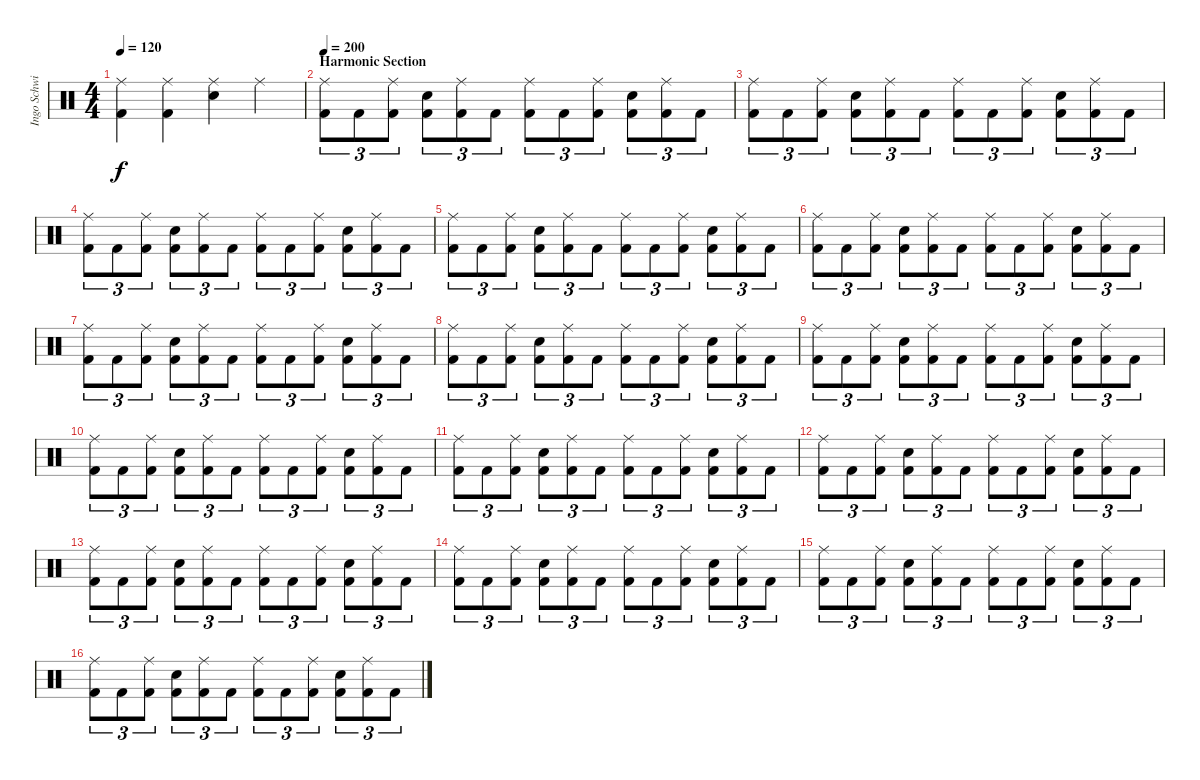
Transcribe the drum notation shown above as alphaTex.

\track ("Ingo Schwichtenberg" "Ingo Schwi") {instrument percussion}
\staff {score}
\articulation defaults
\ts (4 4)
\tempo 120
\clef neutral
\ks c
("Ride (middle)" "Kick (hit) 2").4{dy f} ("Ride (middle)" "Kick (hit) 2").4 ("Ride (middle)" "Snare (hit) 2").4 "Ride (middle)".4 |
\section ("" "Harmonic Section")
\tempo 200
("Ride (middle)" "Kick (hit) 2").8{tu (3 2)} "Kick (hit) 2".8{tu (3 2)} ("Ride (middle)" "Kick (hit) 2").8{tu (3 2)} ("Snare (hit) 2" "Kick (hit) 2").8{tu (3 2)} ("Ride (middle)" "Kick (hit) 2").8{tu (3 2)} "Kick (hit) 2".8{tu (3 2)} ("Ride (middle)" "Kick (hit) 2").8{tu (3 2)} "Kick (hit) 2".8{tu (3 2)} ("Ride (middle)" "Kick (hit) 2").8{tu (3 2)} ("Snare (hit) 2" "Kick (hit) 2").8{tu (3 2)} ("Ride (middle)" "Kick (hit) 2").8{tu (3 2)} "Kick (hit) 2".8{tu (3 2)} |
("Ride (middle)" "Kick (hit) 2").8{tu (3 2)} "Kick (hit) 2".8{tu (3 2)} ("Ride (middle)" "Kick (hit) 2").8{tu (3 2)} ("Snare (hit) 2" "Kick (hit) 2").8{tu (3 2)} ("Ride (middle)" "Kick (hit) 2").8{tu (3 2)} "Kick (hit) 2".8{tu (3 2)} ("Ride (middle)" "Kick (hit) 2").8{tu (3 2)} "Kick (hit) 2".8{tu (3 2)} ("Ride (middle)" "Kick (hit) 2").8{tu (3 2)} ("Snare (hit) 2" "Kick (hit) 2").8{tu (3 2)} ("Ride (middle)" "Kick (hit) 2").8{tu (3 2)} "Kick (hit) 2".8{tu (3 2)} |
("Ride (middle)" "Kick (hit) 2").8{tu (3 2)} "Kick (hit) 2".8{tu (3 2)} ("Ride (middle)" "Kick (hit) 2").8{tu (3 2)} ("Snare (hit) 2" "Kick (hit) 2").8{tu (3 2)} ("Ride (middle)" "Kick (hit) 2").8{tu (3 2)} "Kick (hit) 2".8{tu (3 2)} ("Ride (middle)" "Kick (hit) 2").8{tu (3 2)} "Kick (hit) 2".8{tu (3 2)} ("Ride (middle)" "Kick (hit) 2").8{tu (3 2)} ("Snare (hit) 2" "Kick (hit) 2").8{tu (3 2)} ("Ride (middle)" "Kick (hit) 2").8{tu (3 2)} "Kick (hit) 2".8{tu (3 2)} |
("Ride (middle)" "Kick (hit) 2").8{tu (3 2)} "Kick (hit) 2".8{tu (3 2)} ("Ride (middle)" "Kick (hit) 2").8{tu (3 2)} ("Snare (hit) 2" "Kick (hit) 2").8{tu (3 2)} ("Ride (middle)" "Kick (hit) 2").8{tu (3 2)} "Kick (hit) 2".8{tu (3 2)} ("Ride (middle)" "Kick (hit) 2").8{tu (3 2)} "Kick (hit) 2".8{tu (3 2)} ("Ride (middle)" "Kick (hit) 2").8{tu (3 2)} ("Snare (hit) 2" "Kick (hit) 2").8{tu (3 2)} ("Ride (middle)" "Kick (hit) 2").8{tu (3 2)} "Kick (hit) 2".8{tu (3 2)} |
("Ride (middle)" "Kick (hit) 2").8{tu (3 2)} "Kick (hit) 2".8{tu (3 2)} ("Ride (middle)" "Kick (hit) 2").8{tu (3 2)} ("Snare (hit) 2" "Kick (hit) 2").8{tu (3 2)} ("Ride (middle)" "Kick (hit) 2").8{tu (3 2)} "Kick (hit) 2".8{tu (3 2)} ("Ride (middle)" "Kick (hit) 2").8{tu (3 2)} "Kick (hit) 2".8{tu (3 2)} ("Ride (middle)" "Kick (hit) 2").8{tu (3 2)} ("Snare (hit) 2" "Kick (hit) 2").8{tu (3 2)} ("Ride (middle)" "Kick (hit) 2").8{tu (3 2)} "Kick (hit) 2".8{tu (3 2)} |
("Ride (middle)" "Kick (hit) 2").8{tu (3 2)} "Kick (hit) 2".8{tu (3 2)} ("Ride (middle)" "Kick (hit) 2").8{tu (3 2)} ("Snare (hit) 2" "Kick (hit) 2").8{tu (3 2)} ("Ride (middle)" "Kick (hit) 2").8{tu (3 2)} "Kick (hit) 2".8{tu (3 2)} ("Ride (middle)" "Kick (hit) 2").8{tu (3 2)} "Kick (hit) 2".8{tu (3 2)} ("Ride (middle)" "Kick (hit) 2").8{tu (3 2)} ("Snare (hit) 2" "Kick (hit) 2").8{tu (3 2)} ("Ride (middle)" "Kick (hit) 2").8{tu (3 2)} "Kick (hit) 2".8{tu (3 2)} |
("Ride (middle)" "Kick (hit) 2").8{tu (3 2)} "Kick (hit) 2".8{tu (3 2)} ("Ride (middle)" "Kick (hit) 2").8{tu (3 2)} ("Snare (hit) 2" "Kick (hit) 2").8{tu (3 2)} ("Ride (middle)" "Kick (hit) 2").8{tu (3 2)} "Kick (hit) 2".8{tu (3 2)} ("Ride (middle)" "Kick (hit) 2").8{tu (3 2)} "Kick (hit) 2".8{tu (3 2)} ("Ride (middle)" "Kick (hit) 2").8{tu (3 2)} ("Snare (hit) 2" "Kick (hit) 2").8{tu (3 2)} ("Ride (middle)" "Kick (hit) 2").8{tu (3 2)} "Kick (hit) 2".8{tu (3 2)} |
("Ride (middle)" "Kick (hit) 2").8{tu (3 2)} "Kick (hit) 2".8{tu (3 2)} ("Ride (middle)" "Kick (hit) 2").8{tu (3 2)} ("Snare (hit) 2" "Kick (hit) 2").8{tu (3 2)} ("Ride (middle)" "Kick (hit) 2").8{tu (3 2)} "Kick (hit) 2".8{tu (3 2)} ("Ride (middle)" "Kick (hit) 2").8{tu (3 2)} "Kick (hit) 2".8{tu (3 2)} ("Ride (middle)" "Kick (hit) 2").8{tu (3 2)} ("Snare (hit) 2" "Kick (hit) 2").8{tu (3 2)} ("Ride (middle)" "Kick (hit) 2").8{tu (3 2)} "Kick (hit) 2".8{tu (3 2)} |
("Ride (middle)" "Kick (hit) 2").8{tu (3 2)} "Kick (hit) 2".8{tu (3 2)} ("Ride (middle)" "Kick (hit) 2").8{tu (3 2)} ("Snare (hit) 2" "Kick (hit) 2").8{tu (3 2)} ("Ride (middle)" "Kick (hit) 2").8{tu (3 2)} "Kick (hit) 2".8{tu (3 2)} ("Ride (middle)" "Kick (hit) 2").8{tu (3 2)} "Kick (hit) 2".8{tu (3 2)} ("Ride (middle)" "Kick (hit) 2").8{tu (3 2)} ("Snare (hit) 2" "Kick (hit) 2").8{tu (3 2)} ("Ride (middle)" "Kick (hit) 2").8{tu (3 2)} "Kick (hit) 2".8{tu (3 2)} |
("Ride (middle)" "Kick (hit) 2").8{tu (3 2)} "Kick (hit) 2".8{tu (3 2)} ("Ride (middle)" "Kick (hit) 2").8{tu (3 2)} ("Snare (hit) 2" "Kick (hit) 2").8{tu (3 2)} ("Ride (middle)" "Kick (hit) 2").8{tu (3 2)} "Kick (hit) 2".8{tu (3 2)} ("Ride (middle)" "Kick (hit) 2").8{tu (3 2)} "Kick (hit) 2".8{tu (3 2)} ("Ride (middle)" "Kick (hit) 2").8{tu (3 2)} ("Snare (hit) 2" "Kick (hit) 2").8{tu (3 2)} ("Ride (middle)" "Kick (hit) 2").8{tu (3 2)} "Kick (hit) 2".8{tu (3 2)} |
("Ride (middle)" "Kick (hit) 2").8{tu (3 2)} "Kick (hit) 2".8{tu (3 2)} ("Ride (middle)" "Kick (hit) 2").8{tu (3 2)} ("Snare (hit) 2" "Kick (hit) 2").8{tu (3 2)} ("Ride (middle)" "Kick (hit) 2").8{tu (3 2)} "Kick (hit) 2".8{tu (3 2)} ("Ride (middle)" "Kick (hit) 2").8{tu (3 2)} "Kick (hit) 2".8{tu (3 2)} ("Ride (middle)" "Kick (hit) 2").8{tu (3 2)} ("Snare (hit) 2" "Kick (hit) 2").8{tu (3 2)} ("Ride (middle)" "Kick (hit) 2").8{tu (3 2)} "Kick (hit) 2".8{tu (3 2)} |
("Ride (middle)" "Kick (hit) 2").8{tu (3 2)} "Kick (hit) 2".8{tu (3 2)} ("Ride (middle)" "Kick (hit) 2").8{tu (3 2)} ("Snare (hit) 2" "Kick (hit) 2").8{tu (3 2)} ("Ride (middle)" "Kick (hit) 2").8{tu (3 2)} "Kick (hit) 2".8{tu (3 2)} ("Ride (middle)" "Kick (hit) 2").8{tu (3 2)} "Kick (hit) 2".8{tu (3 2)} ("Ride (middle)" "Kick (hit) 2").8{tu (3 2)} ("Snare (hit) 2" "Kick (hit) 2").8{tu (3 2)} ("Ride (middle)" "Kick (hit) 2").8{tu (3 2)} "Kick (hit) 2".8{tu (3 2)} |
("Ride (middle)" "Kick (hit) 2").8{tu (3 2)} "Kick (hit) 2".8{tu (3 2)} ("Ride (middle)" "Kick (hit) 2").8{tu (3 2)} ("Snare (hit) 2" "Kick (hit) 2").8{tu (3 2)} ("Ride (middle)" "Kick (hit) 2").8{tu (3 2)} "Kick (hit) 2".8{tu (3 2)} ("Ride (middle)" "Kick (hit) 2").8{tu (3 2)} "Kick (hit) 2".8{tu (3 2)} ("Ride (middle)" "Kick (hit) 2").8{tu (3 2)} ("Snare (hit) 2" "Kick (hit) 2").8{tu (3 2)} ("Ride (middle)" "Kick (hit) 2").8{tu (3 2)} "Kick (hit) 2".8{tu (3 2)} |
("Ride (middle)" "Kick (hit) 2").8{tu (3 2)} "Kick (hit) 2".8{tu (3 2)} ("Ride (middle)" "Kick (hit) 2").8{tu (3 2)} ("Snare (hit) 2" "Kick (hit) 2").8{tu (3 2)} ("Ride (middle)" "Kick (hit) 2").8{tu (3 2)} "Kick (hit) 2".8{tu (3 2)} ("Ride (middle)" "Kick (hit) 2").8{tu (3 2)} "Kick (hit) 2".8{tu (3 2)} ("Ride (middle)" "Kick (hit) 2").8{tu (3 2)} ("Snare (hit) 2" "Kick (hit) 2").8{tu (3 2)} ("Ride (middle)" "Kick (hit) 2").8{tu (3 2)} "Kick (hit) 2".8{tu (3 2)} |
("Ride (middle)" "Kick (hit) 2").8{tu (3 2)} "Kick (hit) 2".8{tu (3 2)} ("Ride (middle)" "Kick (hit) 2").8{tu (3 2)} ("Snare (hit) 2" "Kick (hit) 2").8{tu (3 2)} ("Ride (middle)" "Kick (hit) 2").8{tu (3 2)} "Kick (hit) 2".8{tu (3 2)} ("Ride (middle)" "Kick (hit) 2").8{tu (3 2)} "Kick (hit) 2".8{tu (3 2)} ("Ride (middle)" "Kick (hit) 2").8{tu (3 2)} ("Snare (hit) 2" "Kick (hit) 2").8{tu (3 2)} ("Ride (middle)" "Kick (hit) 2").8{tu (3 2)} "Kick (hit) 2".8{tu (3 2)}
